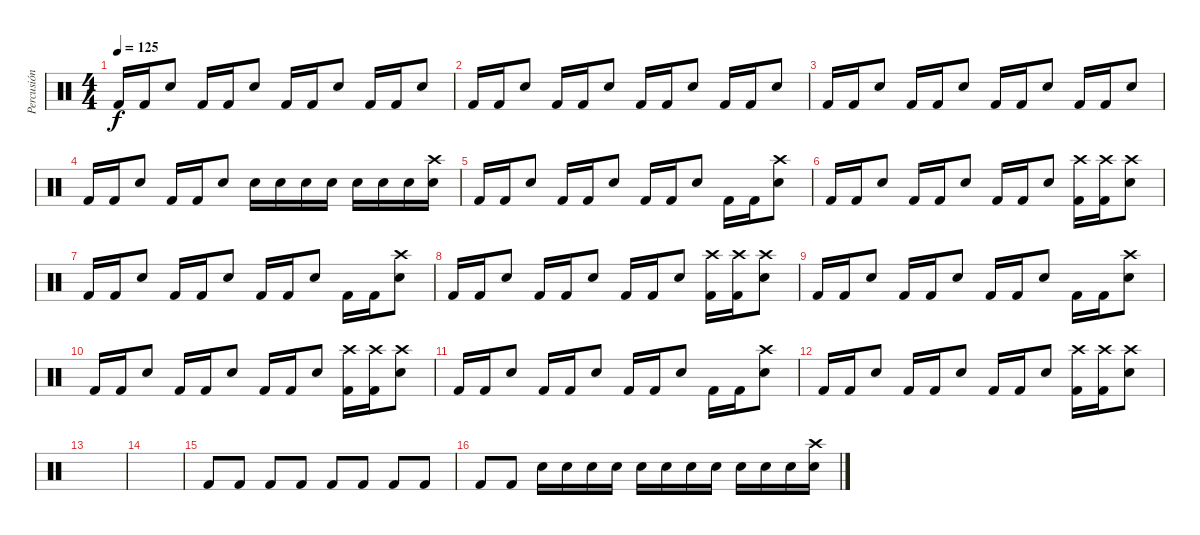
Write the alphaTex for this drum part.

\track ("Percusión" "Percusión") {instrument percussion}
\staff {score}
\articulation defaults
\ts (4 4)
\tempo 125
\clef neutral
\ks c "Kick (hit) 2".16{dy f} "Kick (hit) 2".16 "Snare (hit) 2".8 "Kick (hit) 2".16 "Kick (hit) 2".16 "Snare (hit) 2".8 "Kick (hit) 2".16 "Kick (hit) 2".16 "Snare (hit) 2".8 "Kick (hit) 2".16 "Kick (hit) 2".16 "Snare (hit) 2".8
|
"Kick (hit) 2".16 "Kick (hit) 2".16 "Snare (hit) 2".8 "Kick (hit) 2".16 "Kick (hit) 2".16 "Snare (hit) 2".8 "Kick (hit) 2".16 "Kick (hit) 2".16 "Snare (hit) 2".8 "Kick (hit) 2".16 "Kick (hit) 2".16 "Snare (hit) 2".8 |
"Kick (hit) 2".16 "Kick (hit) 2".16 "Snare (hit) 2".8 "Kick (hit) 2".16 "Kick (hit) 2".16 "Snare (hit) 2".8 "Kick (hit) 2".16 "Kick (hit) 2".16 "Snare (hit) 2".8 "Kick (hit) 2".16 "Kick (hit) 2".16 "Snare (hit) 2".8 |
"Kick (hit) 2".16 "Kick (hit) 2".16 "Snare (hit) 2".8 "Kick (hit) 2".16 "Kick (hit) 2".16 "Snare (hit) 2".8 "Snare (hit) 2".16 "Snare (hit) 2".16 "Snare (hit) 2".16 "Snare (hit) 2".16 "Snare (hit) 2".16 "Snare (hit) 2".16 "Snare (hit) 2".16 ("Snare (hit) 2" "Crash high (hit)").16 |
"Kick (hit) 2".16 "Kick (hit) 2".16 "Snare (hit) 2".8 "Kick (hit) 2".16 "Kick (hit) 2".16 "Snare (hit) 2".8 "Kick (hit) 2".16 "Kick (hit) 2".16 "Snare (hit) 2".8 "Kick (hit) 2".16 "Kick (hit) 2".16 ("Snare (hit) 2" "Crash high (hit)").8 |
"Kick (hit) 2".16 "Kick (hit) 2".16 "Snare (hit) 2".8 "Kick (hit) 2".16 "Kick (hit) 2".16 "Snare (hit) 2".8 "Kick (hit) 2".16 "Kick (hit) 2".16 "Snare (hit) 2".8 ("Kick (hit) 2" "Crash high (hit)").16 ("Kick (hit) 2" "Crash high (hit)").16 ("Snare (hit) 2" "Crash high (hit)").8 |
"Kick (hit) 2".16 "Kick (hit) 2".16 "Snare (hit) 2".8 "Kick (hit) 2".16 "Kick (hit) 2".16 "Snare (hit) 2".8 "Kick (hit) 2".16 "Kick (hit) 2".16 "Snare (hit) 2".8 "Kick (hit) 2".16 "Kick (hit) 2".16 ("Snare (hit) 2" "Crash high (hit)").8 |
"Kick (hit) 2".16 "Kick (hit) 2".16 "Snare (hit) 2".8 "Kick (hit) 2".16 "Kick (hit) 2".16 "Snare (hit) 2".8 "Kick (hit) 2".16 "Kick (hit) 2".16 "Snare (hit) 2".8 ("Kick (hit) 2" "Crash high (hit)").16 ("Kick (hit) 2" "Crash high (hit)").16 ("Snare (hit) 2" "Crash high (hit)").8 |
"Kick (hit) 2".16 "Kick (hit) 2".16 "Snare (hit) 2".8 "Kick (hit) 2".16 "Kick (hit) 2".16 "Snare (hit) 2".8 "Kick (hit) 2".16 "Kick (hit) 2".16 "Snare (hit) 2".8 "Kick (hit) 2".16 "Kick (hit) 2".16 ("Snare (hit) 2" "Crash high (hit)").8 |
"Kick (hit) 2".16 "Kick (hit) 2".16 "Snare (hit) 2".8 "Kick (hit) 2".16 "Kick (hit) 2".16 "Snare (hit) 2".8 "Kick (hit) 2".16 "Kick (hit) 2".16 "Snare (hit) 2".8 ("Kick (hit) 2" "Crash high (hit)").16 ("Kick (hit) 2" "Crash high (hit)").16 ("Snare (hit) 2" "Crash high (hit)").8 |
"Kick (hit) 2".16 "Kick (hit) 2".16 "Snare (hit) 2".8 "Kick (hit) 2".16 "Kick (hit) 2".16 "Snare (hit) 2".8 "Kick (hit) 2".16 "Kick (hit) 2".16 "Snare (hit) 2".8 "Kick (hit) 2".16 "Kick (hit) 2".16 ("Snare (hit) 2" "Crash high (hit)").8 |
"Kick (hit) 2".16 "Kick (hit) 2".16 "Snare (hit) 2".8 "Kick (hit) 2".16 "Kick (hit) 2".16 "Snare (hit) 2".8 "Kick (hit) 2".16 "Kick (hit) 2".16 "Snare (hit) 2".8 ("Kick (hit) 2" "Crash high (hit)").16 ("Kick (hit) 2" "Crash high (hit)").16 ("Snare (hit) 2" "Crash high (hit)").8 |
|
|
"Kick (hit) 2".8 "Kick (hit) 2".8 "Kick (hit) 2".8 "Kick (hit) 2".8 "Kick (hit) 2".8 "Kick (hit) 2".8 "Kick (hit) 2".8 "Kick (hit) 2".8 |
"Kick (hit) 2".8 "Kick (hit) 2".8 "Snare (hit) 2".16 "Snare (hit) 2".16 "Snare (hit) 2".16 "Snare (hit) 2".16 "Snare (hit) 2".16 "Snare (hit) 2".16 "Snare (hit) 2".16 "Snare (hit) 2".16 "Snare (hit) 2".16 "Snare (hit) 2".16 "Snare (hit) 2".16 ("Snare (hit) 2" "Crash high (hit)").16
